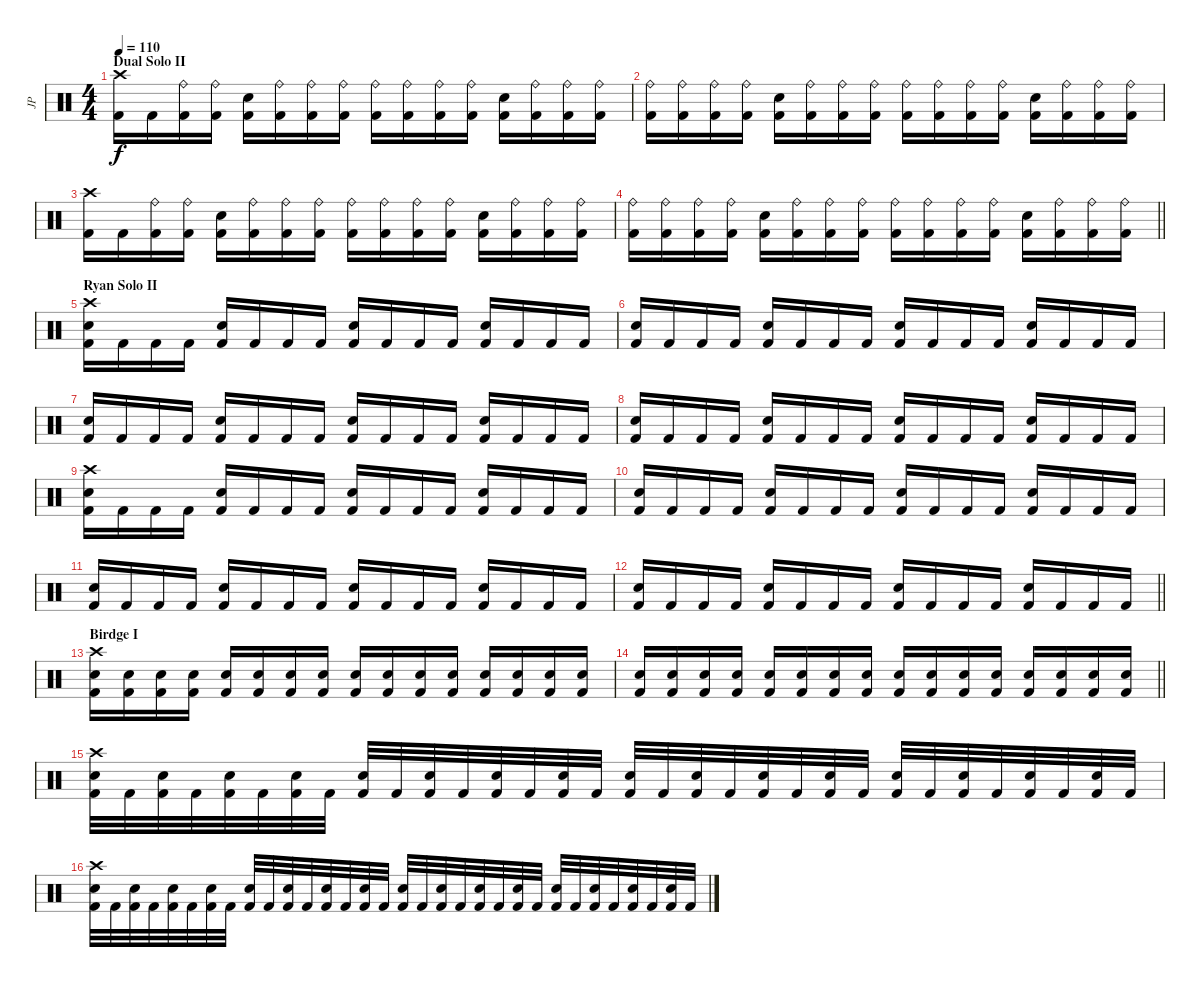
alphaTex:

\track ("JP" "JP") {instrument percussion}
\staff {score}
\articulation defaults
\ts (4 4)
\section ("" "Dual Solo II")
\tempo 110
\clef neutral
\ks c
("Crash high (hit)" "Kick (hit) 2").16{dy f} "Kick (hit) 2".16 ("Ride (bell)" "Kick (hit) 2").16 ("Ride (bell)" "Kick (hit) 2").16 ("Electric Snare (hit)" "Kick (hit) 2").16 ("Ride (bell)" "Kick (hit) 2").16 ("Ride (bell)" "Kick (hit) 2").16 ("Ride (bell)" "Kick (hit) 2").16 ("Ride (bell)" "Kick (hit) 2").16 ("Ride (bell)" "Kick (hit) 2").16 ("Ride (bell)" "Kick (hit) 2").16 ("Ride (bell)" "Kick (hit) 2").16 ("Electric Snare (hit)" "Kick (hit) 2").16 ("Ride (bell)" "Kick (hit) 2").16 ("Ride (bell)" "Kick (hit) 2").16 ("Ride (bell)" "Kick (hit) 2").16 |
("Ride (bell)" "Kick (hit) 2").16 ("Ride (bell)" "Kick (hit) 2").16 ("Ride (bell)" "Kick (hit) 2").16 ("Ride (bell)" "Kick (hit) 2").16 ("Electric Snare (hit)" "Kick (hit) 2").16 ("Ride (bell)" "Kick (hit) 2").16 ("Ride (bell)" "Kick (hit) 2").16 ("Ride (bell)" "Kick (hit) 2").16 ("Ride (bell)" "Kick (hit) 2").16 ("Ride (bell)" "Kick (hit) 2").16 ("Ride (bell)" "Kick (hit) 2").16 ("Ride (bell)" "Kick (hit) 2").16 ("Electric Snare (hit)" "Kick (hit) 2").16 ("Ride (bell)" "Kick (hit) 2").16 ("Ride (bell)" "Kick (hit) 2").16 ("Ride (bell)" "Kick (hit) 2").16 |
("Crash high (hit)" "Kick (hit) 2").16 "Kick (hit) 2".16 ("Ride (bell)" "Kick (hit) 2").16 ("Ride (bell)" "Kick (hit) 2").16 ("Electric Snare (hit)" "Kick (hit) 2").16 ("Ride (bell)" "Kick (hit) 2").16 ("Ride (bell)" "Kick (hit) 2").16 ("Ride (bell)" "Kick (hit) 2").16 ("Ride (bell)" "Kick (hit) 2").16 ("Ride (bell)" "Kick (hit) 2").16 ("Ride (bell)" "Kick (hit) 2").16 ("Ride (bell)" "Kick (hit) 2").16 ("Electric Snare (hit)" "Kick (hit) 2").16 ("Ride (bell)" "Kick (hit) 2").16 ("Ride (bell)" "Kick (hit) 2").16 ("Ride (bell)" "Kick (hit) 2").16 |
\barLineRight lightlight
("Ride (bell)" "Kick (hit) 2").16 ("Ride (bell)" "Kick (hit) 2").16 ("Ride (bell)" "Kick (hit) 2").16 ("Ride (bell)" "Kick (hit) 2").16 ("Electric Snare (hit)" "Kick (hit) 2").16 ("Ride (bell)" "Kick (hit) 2").16 ("Ride (bell)" "Kick (hit) 2").16 ("Ride (bell)" "Kick (hit) 2").16 ("Ride (bell)" "Kick (hit) 2").16 ("Ride (bell)" "Kick (hit) 2").16 ("Ride (bell)" "Kick (hit) 2").16 ("Ride (bell)" "Kick (hit) 2").16 ("Electric Snare (hit)" "Kick (hit) 2").16 ("Ride (bell)" "Kick (hit) 2").16 ("Ride (bell)" "Kick (hit) 2").16 ("Ride (bell)" "Kick (hit) 2").16 |
\section ("" "Ryan Solo II")
("Crash high (hit)" "Electric Snare (hit)" "Kick (hit) 2").16 "Kick (hit) 2".16 "Kick (hit) 2".16 "Kick (hit) 2".16 ("Electric Snare (hit)" "Kick (hit) 2").16 "Kick (hit) 2".16 "Kick (hit) 2".16 "Kick (hit) 2".16 ("Electric Snare (hit)" "Kick (hit) 2").16 "Kick (hit) 2".16 "Kick (hit) 2".16 "Kick (hit) 2".16 ("Electric Snare (hit)" "Kick (hit) 2").16 "Kick (hit) 2".16 "Kick (hit) 2".16 "Kick (hit) 2".16 |
("Electric Snare (hit)" "Kick (hit) 2").16 "Kick (hit) 2".16 "Kick (hit) 2".16 "Kick (hit) 2".16 ("Electric Snare (hit)" "Kick (hit) 2").16 "Kick (hit) 2".16 "Kick (hit) 2".16 "Kick (hit) 2".16 ("Electric Snare (hit)" "Kick (hit) 2").16 "Kick (hit) 2".16 "Kick (hit) 2".16 "Kick (hit) 2".16 ("Electric Snare (hit)" "Kick (hit) 2").16 "Kick (hit) 2".16 "Kick (hit) 2".16 "Kick (hit) 2".16 |
("Electric Snare (hit)" "Kick (hit) 2").16 "Kick (hit) 2".16 "Kick (hit) 2".16 "Kick (hit) 2".16 ("Electric Snare (hit)" "Kick (hit) 2").16 "Kick (hit) 2".16 "Kick (hit) 2".16 "Kick (hit) 2".16 ("Electric Snare (hit)" "Kick (hit) 2").16 "Kick (hit) 2".16 "Kick (hit) 2".16 "Kick (hit) 2".16 ("Electric Snare (hit)" "Kick (hit) 2").16 "Kick (hit) 2".16 "Kick (hit) 2".16 "Kick (hit) 2".16 |
("Electric Snare (hit)" "Kick (hit) 2").16 "Kick (hit) 2".16 "Kick (hit) 2".16 "Kick (hit) 2".16 ("Electric Snare (hit)" "Kick (hit) 2").16 "Kick (hit) 2".16 "Kick (hit) 2".16 "Kick (hit) 2".16 ("Electric Snare (hit)" "Kick (hit) 2").16 "Kick (hit) 2".16 "Kick (hit) 2".16 "Kick (hit) 2".16 ("Electric Snare (hit)" "Kick (hit) 2").16 "Kick (hit) 2".16 "Kick (hit) 2".16 "Kick (hit) 2".16 |
("Crash high (hit)" "Electric Snare (hit)" "Kick (hit) 2").16 "Kick (hit) 2".16 "Kick (hit) 2".16 "Kick (hit) 2".16 ("Electric Snare (hit)" "Kick (hit) 2").16 "Kick (hit) 2".16 "Kick (hit) 2".16 "Kick (hit) 2".16 ("Electric Snare (hit)" "Kick (hit) 2").16 "Kick (hit) 2".16 "Kick (hit) 2".16 "Kick (hit) 2".16 ("Electric Snare (hit)" "Kick (hit) 2").16 "Kick (hit) 2".16 "Kick (hit) 2".16 "Kick (hit) 2".16 |
("Electric Snare (hit)" "Kick (hit) 2").16 "Kick (hit) 2".16 "Kick (hit) 2".16 "Kick (hit) 2".16 ("Electric Snare (hit)" "Kick (hit) 2").16 "Kick (hit) 2".16 "Kick (hit) 2".16 "Kick (hit) 2".16 ("Electric Snare (hit)" "Kick (hit) 2").16 "Kick (hit) 2".16 "Kick (hit) 2".16 "Kick (hit) 2".16 ("Electric Snare (hit)" "Kick (hit) 2").16 "Kick (hit) 2".16 "Kick (hit) 2".16 "Kick (hit) 2".16 |
("Electric Snare (hit)" "Kick (hit) 2").16 "Kick (hit) 2".16 "Kick (hit) 2".16 "Kick (hit) 2".16 ("Electric Snare (hit)" "Kick (hit) 2").16 "Kick (hit) 2".16 "Kick (hit) 2".16 "Kick (hit) 2".16 ("Electric Snare (hit)" "Kick (hit) 2").16 "Kick (hit) 2".16 "Kick (hit) 2".16 "Kick (hit) 2".16 ("Electric Snare (hit)" "Kick (hit) 2").16 "Kick (hit) 2".16 "Kick (hit) 2".16 "Kick (hit) 2".16 |
\barLineRight lightlight
("Electric Snare (hit)" "Kick (hit) 2").16 "Kick (hit) 2".16 "Kick (hit) 2".16 "Kick (hit) 2".16 ("Electric Snare (hit)" "Kick (hit) 2").16 "Kick (hit) 2".16 "Kick (hit) 2".16 "Kick (hit) 2".16 ("Electric Snare (hit)" "Kick (hit) 2").16 "Kick (hit) 2".16 "Kick (hit) 2".16 "Kick (hit) 2".16 ("Electric Snare (hit)" "Kick (hit) 2").16 "Kick (hit) 2".16 "Kick (hit) 2".16 "Kick (hit) 2".16 |
\section ("" "Birdge I")
("Crash high (hit)" "Electric Snare (hit)" "Kick (hit) 2").16 ("Electric Snare (hit)" "Kick (hit) 2").16 ("Electric Snare (hit)" "Kick (hit) 2").16 ("Electric Snare (hit)" "Kick (hit) 2").16 ("Electric Snare (hit)" "Kick (hit) 2").16 ("Electric Snare (hit)" "Kick (hit) 2").16 ("Electric Snare (hit)" "Kick (hit) 2").16 ("Electric Snare (hit)" "Kick (hit) 2").16 ("Electric Snare (hit)" "Kick (hit) 2").16 ("Electric Snare (hit)" "Kick (hit) 2").16 ("Electric Snare (hit)" "Kick (hit) 2").16 ("Electric Snare (hit)" "Kick (hit) 2").16 ("Electric Snare (hit)" "Kick (hit) 2").16 ("Electric Snare (hit)" "Kick (hit) 2").16 ("Electric Snare (hit)" "Kick (hit) 2").16 ("Electric Snare (hit)" "Kick (hit) 2").16 |
\barLineRight lightlight
("Electric Snare (hit)" "Kick (hit) 2").16 ("Electric Snare (hit)" "Kick (hit) 2").16 ("Electric Snare (hit)" "Kick (hit) 2").16 ("Electric Snare (hit)" "Kick (hit) 2").16 ("Electric Snare (hit)" "Kick (hit) 2").16 ("Electric Snare (hit)" "Kick (hit) 2").16 ("Electric Snare (hit)" "Kick (hit) 2").16 ("Electric Snare (hit)" "Kick (hit) 2").16 ("Electric Snare (hit)" "Kick (hit) 2").16 ("Electric Snare (hit)" "Kick (hit) 2").16 ("Electric Snare (hit)" "Kick (hit) 2").16 ("Electric Snare (hit)" "Kick (hit) 2").16 ("Electric Snare (hit)" "Kick (hit) 2").16 ("Electric Snare (hit)" "Kick (hit) 2").16 ("Electric Snare (hit)" "Kick (hit) 2").16 ("Electric Snare (hit)" "Kick (hit) 2").16 |
("Crash high (hit)" "Electric Snare (hit)" "Kick (hit) 2").32 "Kick (hit) 2".32 ("Electric Snare (hit)" "Kick (hit) 2").32 "Kick (hit) 2".32 ("Electric Snare (hit)" "Kick (hit) 2").32 "Kick (hit) 2".32 ("Electric Snare (hit)" "Kick (hit) 2").32 "Kick (hit) 2".32 ("Electric Snare (hit)" "Kick (hit) 2").32 "Kick (hit) 2".32 ("Electric Snare (hit)" "Kick (hit) 2").32 "Kick (hit) 2".32 ("Electric Snare (hit)" "Kick (hit) 2").32 "Kick (hit) 2".32 ("Electric Snare (hit)" "Kick (hit) 2").32 "Kick (hit) 2".32 ("Electric Snare (hit)" "Kick (hit) 2").32 "Kick (hit) 2".32 ("Electric Snare (hit)" "Kick (hit) 2").32 "Kick (hit) 2".32 ("Electric Snare (hit)" "Kick (hit) 2").32 "Kick (hit) 2".32 ("Electric Snare (hit)" "Kick (hit) 2").32 "Kick (hit) 2".32 ("Electric Snare (hit)" "Kick (hit) 2").32 "Kick (hit) 2".32 ("Electric Snare (hit)" "Kick (hit) 2").32 "Kick (hit) 2".32 ("Electric Snare (hit)" "Kick (hit) 2").32 "Kick (hit) 2".32 ("Electric Snare (hit)" "Kick (hit) 2").32 "Kick (hit) 2".32 |
("Crash high (hit)" "Electric Snare (hit)" "Kick (hit) 2").32 "Kick (hit) 2".32 ("Electric Snare (hit)" "Kick (hit) 2").32 "Kick (hit) 2".32 ("Electric Snare (hit)" "Kick (hit) 2").32 "Kick (hit) 2".32 ("Electric Snare (hit)" "Kick (hit) 2").32 "Kick (hit) 2".32 ("Electric Snare (hit)" "Kick (hit) 2").32 "Kick (hit) 2".32 ("Electric Snare (hit)" "Kick (hit) 2").32 "Kick (hit) 2".32 ("Electric Snare (hit)" "Kick (hit) 2").32 "Kick (hit) 2".32 ("Electric Snare (hit)" "Kick (hit) 2").32 "Kick (hit) 2".32 ("Electric Snare (hit)" "Kick (hit) 2").32 "Kick (hit) 2".32 ("Electric Snare (hit)" "Kick (hit) 2").32 "Kick (hit) 2".32 ("Electric Snare (hit)" "Kick (hit) 2").32 "Kick (hit) 2".32 ("Electric Snare (hit)" "Kick (hit) 2").32 "Kick (hit) 2".32 ("Electric Snare (hit)" "Kick (hit) 2").32 "Kick (hit) 2".32 ("Electric Snare (hit)" "Kick (hit) 2").32 "Kick (hit) 2".32 ("Electric Snare (hit)" "Kick (hit) 2").32 "Kick (hit) 2".32 ("Electric Snare (hit)" "Kick (hit) 2").32 "Kick (hit) 2".32
